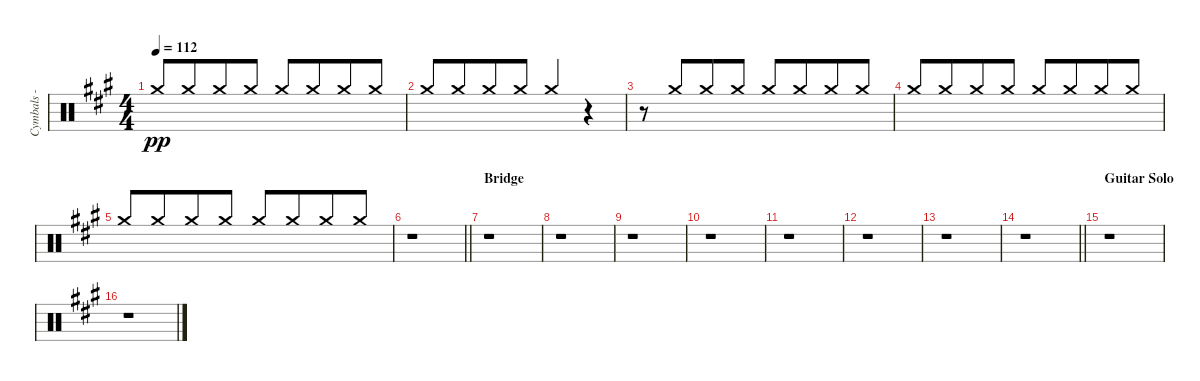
\track ("Cymbals - ride" "Cymbals - ") {instrument percussion}
\staff {score}
\articulation defaults
\ts (4 4)
\tempo 112
\clef neutral
\ks f#minor "Crash medium (hit)".8{dy pp beam Up} "Crash medium (hit)".8{beam Up beam merge} "Crash medium (hit)".8{beam Up} "Crash medium (hit)".8{beam Up} "Crash medium (hit)".8{beam Up} "Crash medium (hit)".8{beam Up beam merge} "Crash medium (hit)".8{beam Up} "Crash medium (hit)".8{beam Up}
|
"Crash medium (hit)".8{beam Up} "Crash medium (hit)".8{beam Up beam merge} "Crash medium (hit)".8{beam Up} "Crash medium (hit)".8{beam Up} "Crash medium (hit)".4{beam Up} r.4 |
r.8 "Crash medium (hit)".8{beam Up beam merge} "Crash medium (hit)".8{beam Up} "Crash medium (hit)".8{beam Up} "Crash medium (hit)".8{beam Up} "Crash medium (hit)".8{beam Up beam merge} "Crash medium (hit)".8{beam Up} "Crash medium (hit)".8{beam Up} |
"Crash medium (hit)".8{beam Up} "Crash medium (hit)".8{beam Up beam merge} "Crash medium (hit)".8{beam Up} "Crash medium (hit)".8{beam Up} "Crash medium (hit)".8{beam Up} "Crash medium (hit)".8{beam Up beam merge} "Crash medium (hit)".8{beam Up} "Crash medium (hit)".8{beam Up} |
"Crash medium (hit)".8{beam Up} "Crash medium (hit)".8{beam Up beam merge} "Crash medium (hit)".8{beam Up} "Crash medium (hit)".8{beam Up} "Crash medium (hit)".8{beam Up} "Crash medium (hit)".8{beam Up beam merge} "Crash medium (hit)".8{beam Up} "Crash medium (hit)".8{beam Up} |
\barLineRight lightlight
r.1 |
\section ("" "Bridge")
r.1 |
r.1 |
r.1 |
r.1 |
r.1 |
r.1 |
r.1 |
\barLineRight lightlight
r.1 |
\section ("" "Guitar Solo")
r.1 |
r.1
